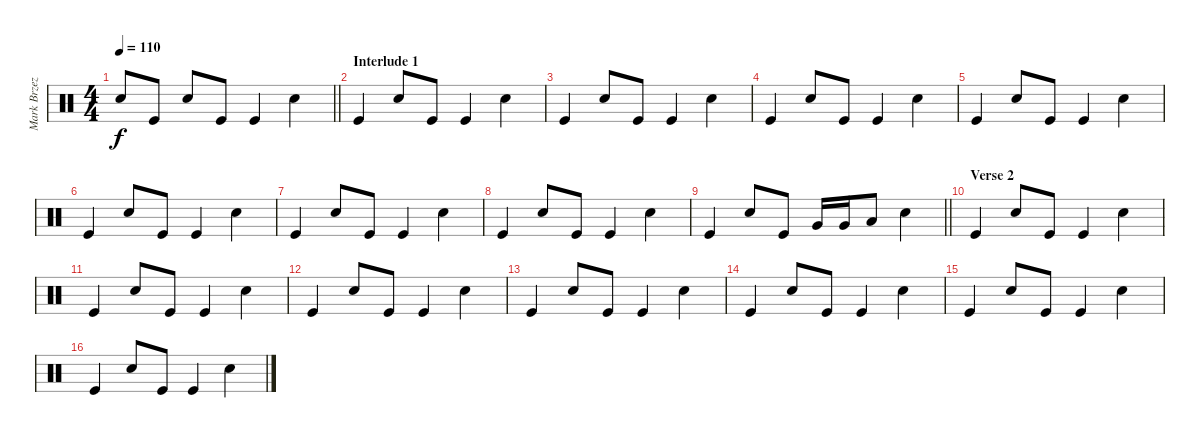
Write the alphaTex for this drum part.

\track ("Mark Brzezicki - Toms, Snare & Bass Drum" "Mark Brzez") {instrument percussion}
\staff {score}
\articulation defaults
\ts (4 4)
\tempo 110
\clef neutral
\barLineRight lightlight
\ks c "Snare (hit)"{t}.8{dy f} "Kick (hit)".8 "Electric Snare (hit)".8 "Kick (hit)".8 "Kick (hit)".4 "Electric Snare (hit)".4
|
\section ("" "Interlude 1")
"Kick (hit)".4 "Electric Snare (hit)".8 "Kick (hit)".8 "Kick (hit)".4 "Electric Snare (hit)".4 |
"Kick (hit)".4 "Electric Snare (hit)".8 "Kick (hit)".8 "Kick (hit)".4 "Electric Snare (hit)".4 |
"Kick (hit)".4 "Electric Snare (hit)".8 "Kick (hit)".8 "Kick (hit)".4 "Electric Snare (hit)".4 |
"Kick (hit)".4 "Electric Snare (hit)".8 "Kick (hit)".8 "Kick (hit)".4 "Electric Snare (hit)".4 |
"Kick (hit)".4 "Electric Snare (hit)".8 "Kick (hit)".8 "Kick (hit)".4 "Electric Snare (hit)".4 |
"Kick (hit)".4 "Electric Snare (hit)".8 "Kick (hit)".8 "Kick (hit)".4 "Electric Snare (hit)".4 |
"Kick (hit)".4 "Electric Snare (hit)".8 "Kick (hit)".8 "Kick (hit)".4 "Electric Snare (hit)".4 |
\barLineRight lightlight "Kick (hit)".4 "Electric Snare (hit)".8 "Kick (hit)".8 "Very Low Tom (hit)".16 "Very Low Tom (hit)".16 "Low Floor Tom (hit)".8 "Electric Snare (hit)".4
|
\section ("" "Verse 2")
"Kick (hit)".4 "Electric Snare (hit)".8 "Kick (hit)".8 "Kick (hit)".4 "Electric Snare (hit)".4 |
"Kick (hit)".4 "Electric Snare (hit)".8 "Kick (hit)".8 "Kick (hit)".4 "Electric Snare (hit)".4 |
"Kick (hit)".4 "Electric Snare (hit)".8 "Kick (hit)".8 "Kick (hit)".4 "Electric Snare (hit)".4 |
"Kick (hit)".4 "Electric Snare (hit)".8 "Kick (hit)".8 "Kick (hit)".4 "Electric Snare (hit)".4 |
"Kick (hit)".4 "Electric Snare (hit)".8 "Kick (hit)".8 "Kick (hit)".4 "Electric Snare (hit)".4 |
"Kick (hit)".4 "Electric Snare (hit)".8 "Kick (hit)".8 "Kick (hit)".4 "Electric Snare (hit)".4 |
"Kick (hit)".4 "Electric Snare (hit)".8 "Kick (hit)".8 "Kick (hit)".4 "Electric Snare (hit)".4
